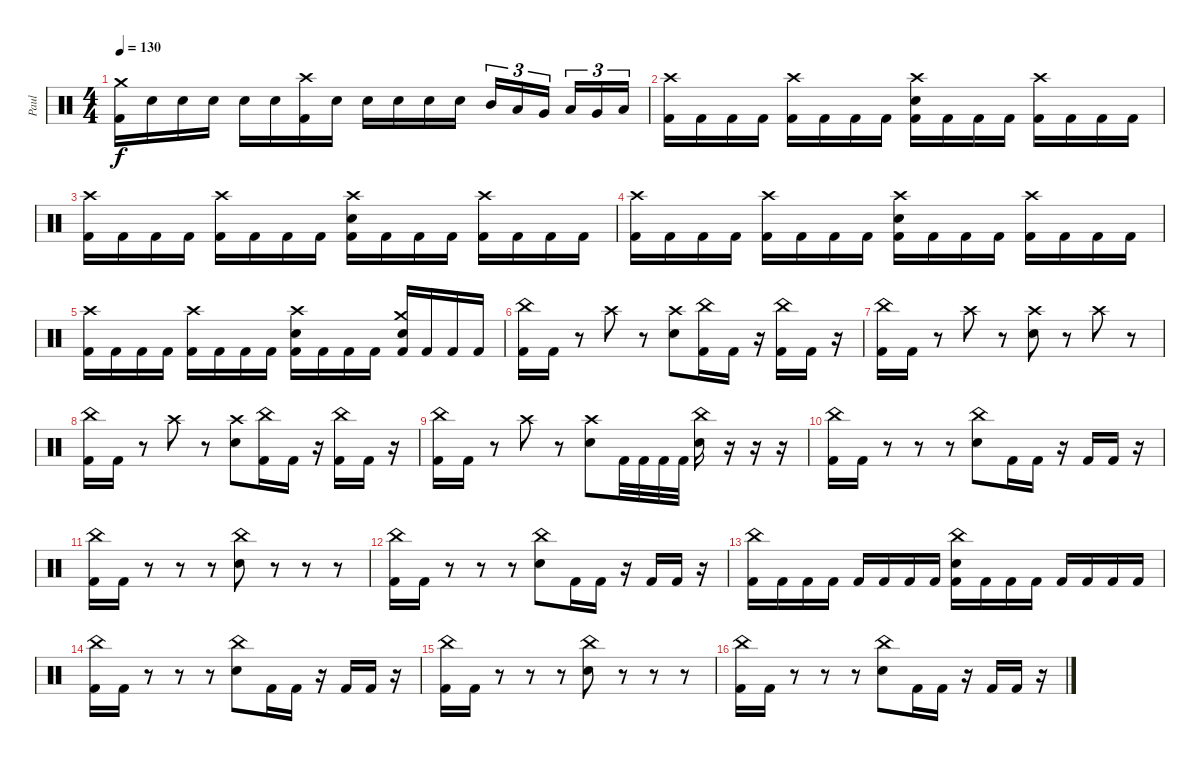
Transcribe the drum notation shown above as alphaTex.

\track ("Paul " "Paul ") {instrument percussion}
\staff {score}
\articulation defaults
\ts (4 4)
\tempo 130
\clef neutral
\ks c
("Kick (hit) 2" "Crash medium (hit)").16{dy f} "Electric Snare (hit)".16 "Electric Snare (hit)".16 "Electric Snare (hit)".16 "Electric Snare (hit)".16 "Electric Snare (hit)".16 ("Kick (hit) 2" "Crash high (hit)").16 "Electric Snare (hit)".16 "Electric Snare (hit)".16 "Electric Snare (hit)".16 "Electric Snare (hit)".16 "Electric Snare (hit)".16 "Mid Tom (hit)".16{tu (3 2)} "Low Tom (hit)".16{tu (3 2)} "Very Low Tom (hit)".16{tu (3 2) beam splitsecondary} "Low Tom (hit)".16{tu (3 2)} "Very Low Tom (hit)".16{tu (3 2)} "Low Floor Tom (hit)".16{tu (3 2)} |
("Kick (hit) 2" "Crash high (hit)").16 "Kick (hit) 2".16 "Kick (hit) 2".16 "Kick (hit) 2".16 ("Kick (hit) 2" "Crash high (hit)").16 "Kick (hit) 2".16 "Kick (hit) 2".16 "Kick (hit) 2".16 ("Kick (hit) 2" "Electric Snare (hit)" "Crash high (hit)").16 "Kick (hit) 2".16 "Kick (hit) 2".16 "Kick (hit) 2".16 ("Kick (hit) 2" "Crash high (hit)").16 "Kick (hit) 2".16 "Kick (hit) 2".16 "Kick (hit) 2".16 |
("Kick (hit) 2" "Crash high (hit)").16 "Kick (hit) 2".16 "Kick (hit) 2".16 "Kick (hit) 2".16 ("Kick (hit) 2" "Crash high (hit)").16 "Kick (hit) 2".16 "Kick (hit) 2".16 "Kick (hit) 2".16 ("Kick (hit) 2" "Electric Snare (hit)" "Crash high (hit)").16 "Kick (hit) 2".16 "Kick (hit) 2".16 "Kick (hit) 2".16 ("Kick (hit) 2" "Crash high (hit)").16 "Kick (hit) 2".16 "Kick (hit) 2".16 "Kick (hit) 2".16 |
("Kick (hit) 2" "Crash high (hit)").16 "Kick (hit) 2".16 "Kick (hit) 2".16 "Kick (hit) 2".16 ("Kick (hit) 2" "Crash high (hit)").16 "Kick (hit) 2".16 "Kick (hit) 2".16 "Kick (hit) 2".16 ("Kick (hit) 2" "Electric Snare (hit)" "Crash high (hit)").16 "Kick (hit) 2".16 "Kick (hit) 2".16 "Kick (hit) 2".16 ("Kick (hit) 2" "Crash high (hit)").16 "Kick (hit) 2".16 "Kick (hit) 2".16 "Kick (hit) 2".16 |
("Kick (hit) 2" "Crash high (hit)").16 "Kick (hit) 2".16 "Kick (hit) 2".16 "Kick (hit) 2".16 ("Kick (hit) 2" "Crash high (hit)").16 "Kick (hit) 2".16 "Kick (hit) 2".16 "Kick (hit) 2".16 ("Kick (hit) 2" "Electric Snare (hit)" "Crash high (hit)").16 "Kick (hit) 2".16 "Kick (hit) 2".16 "Kick (hit) 2".16 ("Kick (hit) 2" "Electric Snare (hit)" "Crash medium (hit)").16 "Kick (hit) 2".16 "Kick (hit) 2".16 "Kick (hit) 2".16 |
("Kick (hit) 2" "China (hit)").16 "Kick (hit) 2".16 r.8 "Crash high (hit)".8 r.8 ("Electric Snare (hit)" "Crash high (hit)").8 ("Kick (hit) 2" "China (hit)").16 "Kick (hit) 2".16 r.16 ("Kick (hit) 2" "China (hit)").16 "Kick (hit) 2".16 r.16 |
("Kick (hit) 2" "China (hit)").16 "Kick (hit) 2".16 r.8 "Crash high (hit)".8 r.8 ("Electric Snare (hit)" "Crash high (hit)").8 r.8 "Crash high (hit)".8 r.8 |
("Kick (hit) 2" "China (hit)").16 "Kick (hit) 2".16 r.8 "Crash high (hit)".8 r.8 ("Electric Snare (hit)" "Crash high (hit)").8 ("Kick (hit) 2" "China (hit)").16 "Kick (hit) 2".16 r.16 ("Kick (hit) 2" "China (hit)").16 "Kick (hit) 2".16 r.16 |
("Kick (hit) 2" "China (hit)").16 "Kick (hit) 2".16 r.8 "Crash high (hit)".8 r.8 ("Electric Snare (hit)" "Crash high (hit)").8 "Kick (hit) 2".32 "Kick (hit) 2".32 "Kick (hit) 2".32 "Kick (hit) 2".32 ("Electric Snare (hit)" "China (hit)").16 r.16 r.16 r.16 |
("Kick (hit) 2" "China (hit)").16 "Kick (hit) 2".16 r.8 r.8 r.8 ("Electric Snare (hit)" "China (hit)").8 "Kick (hit) 2".16 "Kick (hit) 2".16 r.16 "Kick (hit) 2".16 "Kick (hit) 2".16 r.16 |
("Kick (hit) 2" "China (hit)").16 "Kick (hit) 2".16 r.8 r.8 r.8 ("Electric Snare (hit)" "China (hit)").8 r.8 r.8 r.8 |
("Kick (hit) 2" "China (hit)").16 "Kick (hit) 2".16 r.8 r.8 r.8 ("Electric Snare (hit)" "China (hit)").8 "Kick (hit) 2".16 "Kick (hit) 2".16 r.16 "Kick (hit) 2".16 "Kick (hit) 2".16 r.16 |
("Kick (hit) 2" "China (hit)").16 "Kick (hit) 2".16 "Kick (hit) 2".16 "Kick (hit) 2".16 "Kick (hit) 2".16 "Kick (hit) 2".16 "Kick (hit) 2".16 "Kick (hit) 2".16 ("Electric Snare (hit)" "Kick (hit) 2" "China (hit)").16 "Kick (hit) 2".16 "Kick (hit) 2".16 "Kick (hit) 2".16 "Kick (hit) 2".16 "Kick (hit) 2".16 "Kick (hit) 2".16 "Kick (hit) 2".16 |
("Kick (hit) 2" "China (hit)").16 "Kick (hit) 2".16 r.8 r.8 r.8 ("Electric Snare (hit)" "China (hit)").8 "Kick (hit) 2".16 "Kick (hit) 2".16 r.16 "Kick (hit) 2".16 "Kick (hit) 2".16 r.16 |
("Kick (hit) 2" "China (hit)").16 "Kick (hit) 2".16 r.8 r.8 r.8 ("Electric Snare (hit)" "China (hit)").8 r.8 r.8 r.8 |
("Kick (hit) 2" "China (hit)").16 "Kick (hit) 2".16 r.8 r.8 r.8 ("Electric Snare (hit)" "China (hit)").8 "Kick (hit) 2".16 "Kick (hit) 2".16 r.16 "Kick (hit) 2".16 "Kick (hit) 2".16 r.16
